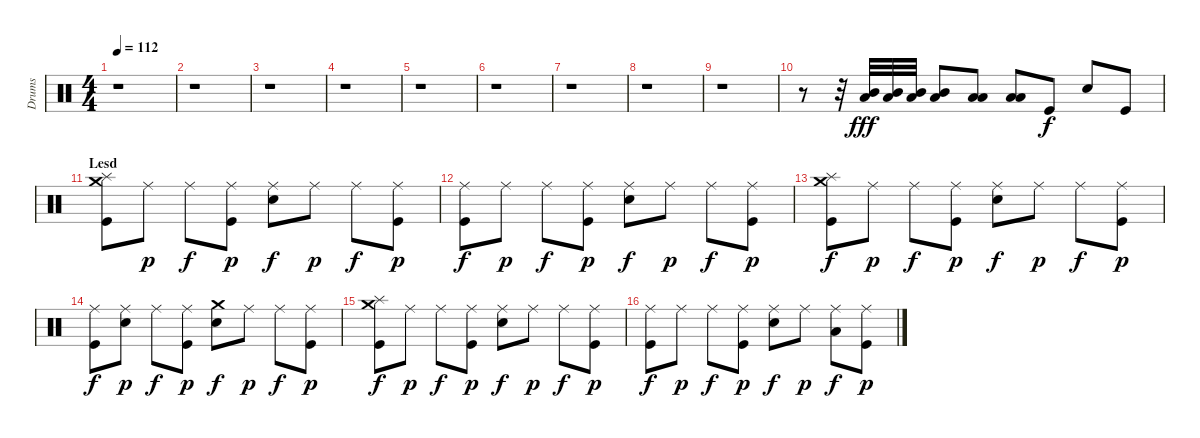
\track ("Drums" "Drums") {instrument percussion}
\staff {score}
\articulation defaults
\ts (4 4)
\tempo 112
\clef neutral
\ks c
r.1{dy mp} |
r.1 |
r.1 |
r.1 |
r.1 |
r.1 |
r.1 |
r.1 |
r.1 |
r.8 r.32 ("Low Floor Tom (hit)" "Mid Tom (hit)").32{dy fff} ("Low Floor Tom (hit)" "Mid Tom (hit)").32 ("Low Floor Tom (hit)" "Mid Tom (hit)").32 ("Low Floor Tom (hit)" "Mid Tom (hit)").8 ("Low Floor Tom (hit)" "Low Tom (hit)").8 ("Low Floor Tom (hit)" "Low Tom (hit)").8 "Kick (hit)".8{dy f} "Electric Snare (hit)".8 "Kick (hit)".8 |
\section ("" "Lesd")
("Crash medium (hit)" "Splash (hit)" "Kick (hit)").8 "Ride (middle)".8{dy p} "Ride (middle)".8{dy f} ("Ride (middle)" "Kick (hit)").8{dy p} ("Ride (middle)" "Electric Snare (hit)").8{dy f} "Ride (middle)".8{dy p} "Ride (middle)".8{dy f} ("Ride (middle)" "Kick (hit)").8{dy p} |
("Ride (middle)" "Kick (hit)").8{dy f} "Ride (middle)".8{dy p} "Ride (middle)".8{dy f} ("Ride (middle)" "Kick (hit)").8{dy p} ("Ride (middle)" "Electric Snare (hit)").8{dy f} "Ride (middle)".8{dy p} "Ride (middle)".8{dy f} ("Ride (middle)" "Kick (hit)").8{dy p} |
("Crash medium (hit)" "Splash (hit)" "Kick (hit)").8{dy f} "Ride (middle)".8{dy p} "Ride (middle)".8{dy f} ("Ride (middle)" "Kick (hit)").8{dy p} ("Ride (middle)" "Electric Snare (hit)").8{dy f} "Ride (middle)".8{dy p} "Ride (middle)".8{dy f} ("Ride (middle)" "Kick (hit)").8{dy p} |
("Ride (middle)" "Kick (hit)").8{dy f} ("Ride (middle)" "Electric Snare (hit)").8{dy p} "Ride (middle)".8{dy f} ("Ride (middle)" "Kick (hit)").8{dy p} ("Crash medium (hit)" "Electric Snare (hit)").8{dy f} "Ride (middle)".8{dy p} "Ride (middle)".8{dy f} ("Ride (middle)" "Kick (hit)").8{dy p} |
("Crash medium (hit)" "Splash (hit)" "Kick (hit)").8{dy f} "Ride (middle)".8{dy p} "Ride (middle)".8{dy f} ("Ride (middle)" "Kick (hit)").8{dy p} ("Ride (middle)" "Electric Snare (hit)").8{dy f} "Ride (middle)".8{dy p} "Ride (middle)".8{dy f} ("Ride (middle)" "Kick (hit)").8{dy p} |
("Ride (middle)" "Kick (hit)").8{dy f} "Ride (middle)".8{dy p} "Ride (middle)".8{dy f} ("Ride (middle)" "Kick (hit)").8{dy p} ("Ride (middle)" "Electric Snare (hit)").8{dy f} "Ride (middle)".8{dy p} ("Ride (middle)" "Low Tom (hit)").8{dy f} ("Ride (middle)" "Kick (hit)").8{dy p}
